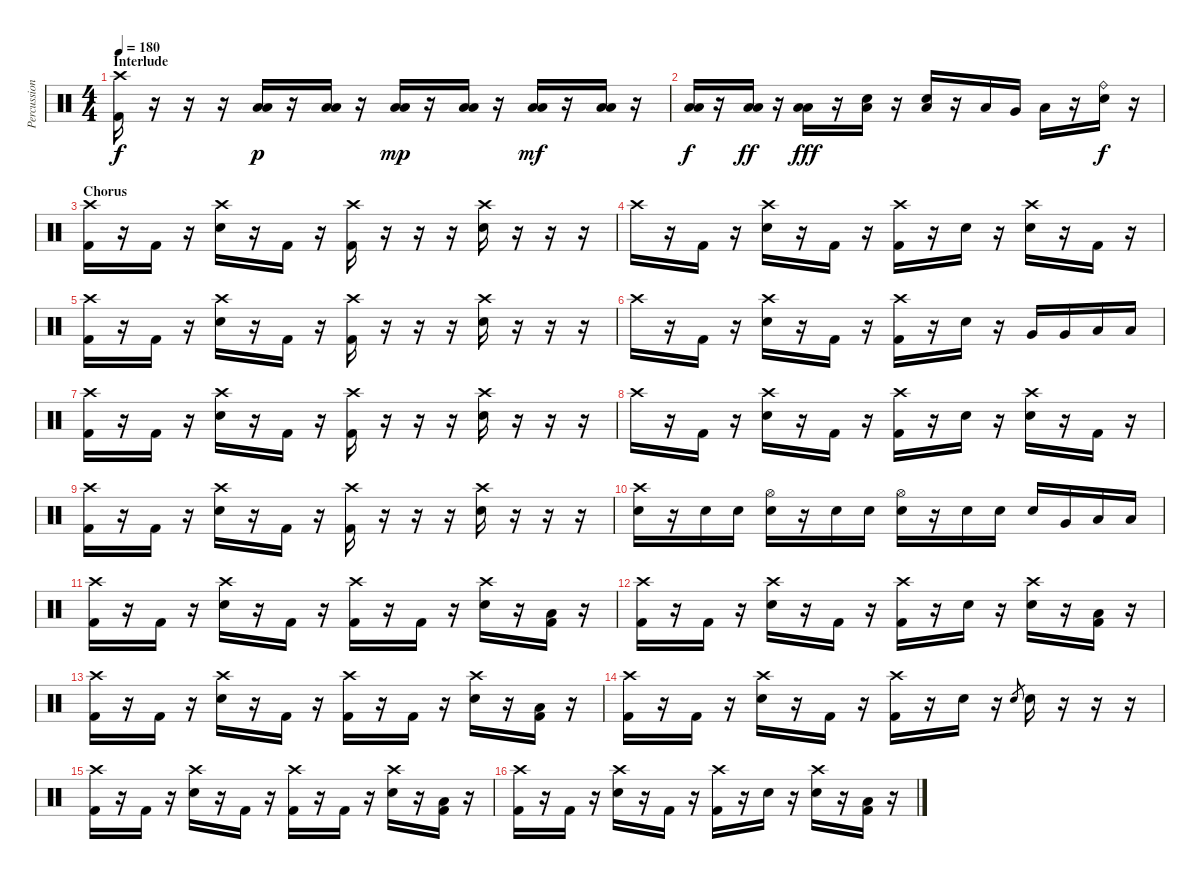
\track ("Percussion" "Percussion") {instrument percussion}
\staff {score}
\articulation defaults
\ts (4 4)
\section ("" "Interlude")
\tempo 180
\clef neutral
\ks c
("Crash high (hit)" "Kick (hit) 2").16{dy f} r.16 r.16 r.16 ("Low Floor Tom (hit)" "Low Floor Tom (hit)").16{dy p} r.16 ("Low Floor Tom (hit)" "Low Floor Tom (hit)").16 r.16 ("Low Floor Tom (hit)" "Low Floor Tom (hit)").16{dy mp} r.16 ("Low Floor Tom (hit)" "Low Floor Tom (hit)").16 r.16 ("Low Floor Tom (hit)" "Low Floor Tom (hit)").16{dy mf} r.16 ("Low Floor Tom (hit)" "Low Floor Tom (hit)").16 r.16 |
("Low Floor Tom (hit)" "Low Floor Tom (hit)").16{dy f} r.16 ("Low Floor Tom (hit)" "Low Floor Tom (hit)").16{dy ff} r.16 ("Low Floor Tom (hit)" "Low Floor Tom (hit)").16{dy fff} r.16 ("Low Floor Tom (hit)" "Electric Snare (hit)").16 r.16 ("Low Floor Tom (hit)" "Electric Snare (hit)").16 r.16 "Low Tom (hit)".16 "Very Low Tom (hit)".16 "Low Floor Tom (hit)".16 r.16 ("Ride (bell)" "Electric Snare (hit)").16{dy f} r.16 |
\section ("" "Chorus")
("Crash high (hit)" "Kick (hit) 2").16 r.16 "Kick (hit) 2".16 r.16 ("Crash high (hit)" "Electric Snare (hit)").16 r.16 "Kick (hit) 2".16 r.16 ("Crash high (hit)" "Kick (hit) 2").16 r.16 r.16 r.16 ("Crash high (hit)" "Electric Snare (hit)").16 r.16 r.16 r.16 |
"Crash high (hit)".16 r.16 "Kick (hit) 2".16 r.16 ("Crash high (hit)" "Electric Snare (hit)").16 r.16 "Kick (hit) 2".16 r.16 ("Crash high (hit)" "Kick (hit) 2").16 r.16 "Electric Snare (hit)".16 r.16 ("Crash high (hit)" "Electric Snare (hit)").16 r.16 "Kick (hit) 2".16 r.16 |
("Crash high (hit)" "Kick (hit) 2").16 r.16 "Kick (hit) 2".16 r.16 ("Crash high (hit)" "Electric Snare (hit)").16 r.16 "Kick (hit) 2".16 r.16 ("Crash high (hit)" "Kick (hit) 2").16 r.16 r.16 r.16 ("Crash high (hit)" "Electric Snare (hit)").16 r.16 r.16 r.16 |
"Crash high (hit)".16 r.16 "Kick (hit) 2".16 r.16 ("Crash high (hit)" "Electric Snare (hit)").16 r.16 "Kick (hit) 2".16 r.16 ("Crash high (hit)" "Kick (hit) 2").16 r.16 "Electric Snare (hit)".16 r.16 "Very Low Tom (hit)".16 "Very Low Tom (hit)".16 "Low Floor Tom (hit)".16 "Low Floor Tom (hit)".16 |
("Crash high (hit)" "Kick (hit) 2").16 r.16 "Kick (hit) 2".16 r.16 ("Crash high (hit)" "Electric Snare (hit)").16 r.16 "Kick (hit) 2".16 r.16 ("Crash high (hit)" "Kick (hit) 2").16 r.16 r.16 r.16 ("Crash high (hit)" "Electric Snare (hit)").16 r.16 r.16 r.16 |
"Crash high (hit)".16 r.16 "Kick (hit) 2".16 r.16 ("Crash high (hit)" "Electric Snare (hit)").16 r.16 "Kick (hit) 2".16 r.16 ("Crash high (hit)" "Kick (hit) 2").16 r.16 "Electric Snare (hit)".16 r.16 ("Crash high (hit)" "Electric Snare (hit)").16 r.16 "Kick (hit) 2".16 r.16 |
("Crash high (hit)" "Kick (hit) 2").16 r.16 "Kick (hit) 2".16 r.16 ("Crash high (hit)" "Electric Snare (hit)").16 r.16 "Kick (hit) 2".16 r.16 ("Crash high (hit)" "Kick (hit) 2").16 r.16 r.16 r.16 ("Crash high (hit)" "Electric Snare (hit)").16 r.16 r.16 r.16 |
("Crash high (hit)" "Electric Snare (hit)").16 r.16 "Electric Snare (hit)".16 "Electric Snare (hit)".16 ("Hi-Hat (open)" "Electric Snare (hit)").16 r.16 "Electric Snare (hit)".16 "Electric Snare (hit)".16 ("Hi-Hat (open)" "Electric Snare (hit)").16 r.16 "Electric Snare (hit)".16 "Electric Snare (hit)".16 "Electric Snare (hit)".16 "Very Low Tom (hit)".16 "Low Floor Tom (hit)".16 "Low Floor Tom (hit)".16 |
("Crash high (hit)" "Kick (hit) 2").16 r.16 "Kick (hit) 2".16 r.16 ("Crash high (hit)" "Electric Snare (hit)").16 r.16 "Kick (hit) 2".16 r.16 ("Crash high (hit)" "Kick (hit) 2").16 r.16 "Kick (hit) 2".16 r.16 ("Crash high (hit)" "Electric Snare (hit)").16 r.16 ("Low Floor Tom (hit)" "Kick (hit) 2").16 r.16 |
("Crash high (hit)" "Kick (hit) 2").16 r.16 "Kick (hit) 2".16 r.16 ("Crash high (hit)" "Electric Snare (hit)").16 r.16 "Kick (hit) 2".16 r.16 ("Crash high (hit)" "Kick (hit) 2").16 r.16 "Electric Snare (hit)".16 r.16 ("Crash high (hit)" "Electric Snare (hit)").16 r.16 ("Low Floor Tom (hit)" "Kick (hit) 2").16 r.16 |
("Crash high (hit)" "Kick (hit) 2").16 r.16 "Kick (hit) 2".16 r.16 ("Crash high (hit)" "Electric Snare (hit)").16 r.16 "Kick (hit) 2".16 r.16 ("Crash high (hit)" "Kick (hit) 2").16 r.16 "Kick (hit) 2".16 r.16 ("Crash high (hit)" "Electric Snare (hit)").16 r.16 ("Low Floor Tom (hit)" "Kick (hit) 2").16 r.16 |
("Crash high (hit)" "Kick (hit) 2").16 r.16 "Kick (hit) 2".16 r.16 ("Crash high (hit)" "Electric Snare (hit)").16 r.16 "Kick (hit) 2".16 r.16 ("Crash high (hit)" "Kick (hit) 2").16 r.16 "Electric Snare (hit)".16 r.16 "Electric Snare (hit)".8{gr} "Electric Snare (hit)".16 r.16 r.16 r.16 |
("Crash high (hit)" "Kick (hit) 2").16 r.16 "Kick (hit) 2".16 r.16 ("Crash high (hit)" "Electric Snare (hit)").16 r.16 "Kick (hit) 2".16 r.16 ("Crash high (hit)" "Kick (hit) 2").16 r.16 "Kick (hit) 2".16 r.16 ("Crash high (hit)" "Electric Snare (hit)").16 r.16 ("Low Floor Tom (hit)" "Kick (hit) 2").16 r.16 |
("Crash high (hit)" "Kick (hit) 2").16 r.16 "Kick (hit) 2".16 r.16 ("Crash high (hit)" "Electric Snare (hit)").16 r.16 "Kick (hit) 2".16 r.16 ("Crash high (hit)" "Kick (hit) 2").16 r.16 "Electric Snare (hit)".16 r.16 ("Crash high (hit)" "Electric Snare (hit)").16 r.16 ("Low Floor Tom (hit)" "Kick (hit) 2").16 r.16
